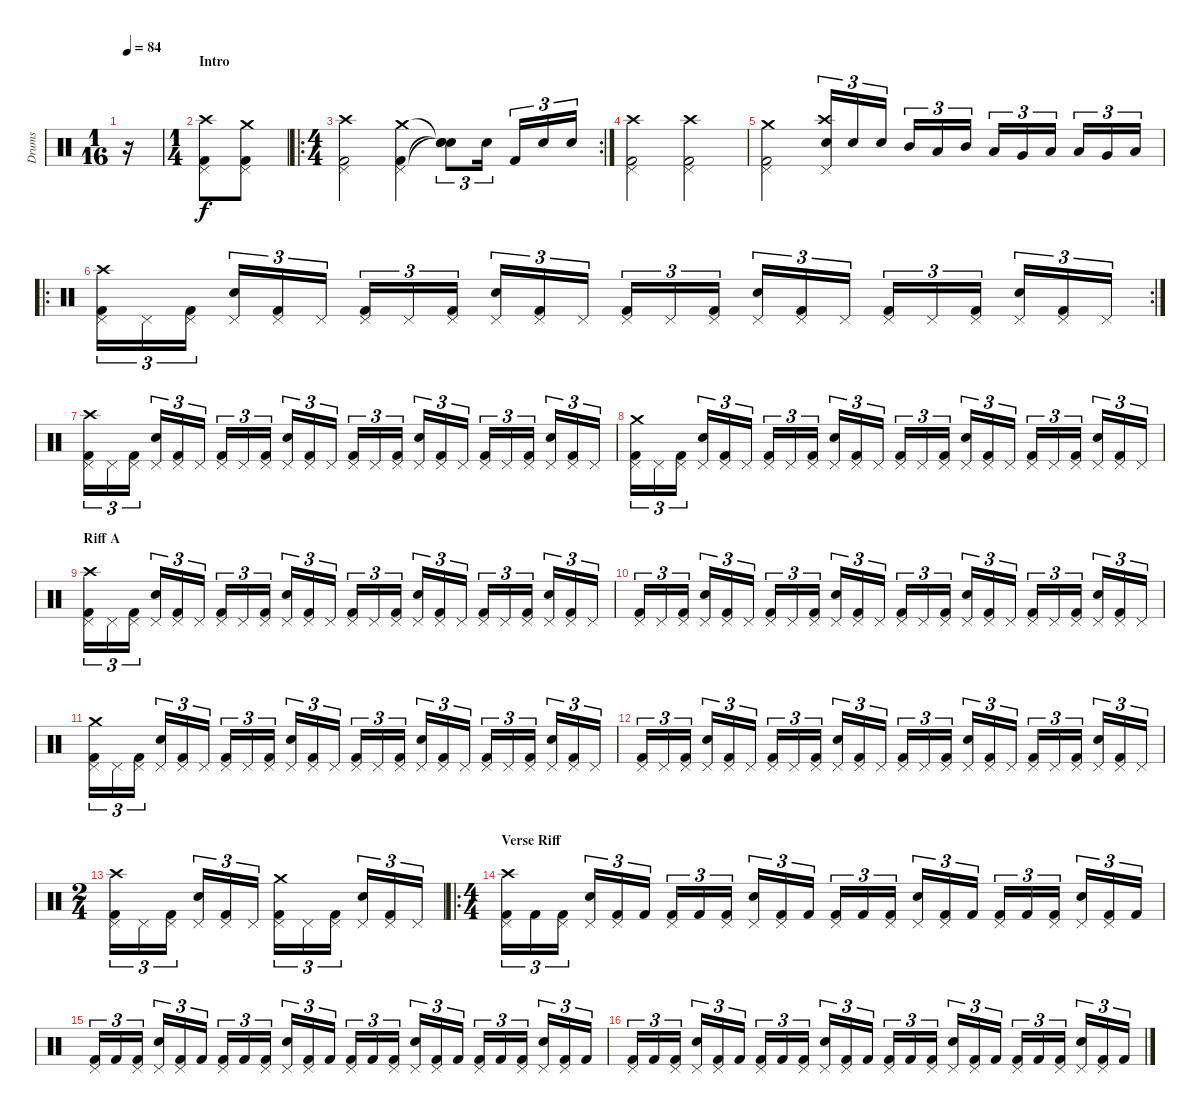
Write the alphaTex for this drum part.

\track ("Drums" "Drums") {instrument percussion}
\staff {score}
\articulation defaults
\ts (1 16)
\tempo 84
\clef neutral
\ks c
r.16{dy f} |
\ts (1 4)
\section ("" "Intro")
("Kick (hit) 2" "Pedal Hi-Hat (hit)" "Crash high (hit)").8 ("Kick (hit) 2" "Pedal Hi-Hat (hit)" "Crash medium (hit)").8 |
\ro
\rc 2
\ts (4 4)
("Kick (hit) 2" "Pedal Hi-Hat (hit)" "Crash high (hit)").2 ("Kick (hit) 2" "Pedal Hi-Hat (hit)" "Crash medium (hit)").4 ("Snare (hit) 2"{t} "Snare (hit)"{t} "Snare (hit)"{t}).8{tu (3 2)} "Snare (hit) 2".16{tu (3 2)} "Kick (hit) 2".16{tu (3 2)} "Snare (hit) 2".16{tu (3 2)} "Snare (hit) 2".16{tu (3 2)} |
("Kick (hit) 2" "Pedal Hi-Hat (hit)" "Crash high (hit)").2 ("Kick (hit) 2" "Pedal Hi-Hat (hit)" "Crash high (hit)").2 |
("Kick (hit) 2" "Pedal Hi-Hat (hit)" "Crash medium (hit)").2 ("Snare (hit) 2" "Pedal Hi-Hat (hit)" "Crash high (hit)").16{tu (3 2)} "Snare (hit) 2".16{tu (3 2)} "Snare (hit) 2".16{tu (3 2)} "Mid Tom (hit)".16{tu (3 2)} "Low Tom (hit)".16{tu (3 2)} "Mid Tom (hit)".16{tu (3 2)} "Low Tom (hit)".16{tu (3 2)} "Very Low Tom (hit)".16{tu (3 2)} "Low Floor Tom (hit)".16{tu (3 2)} "Low Tom (hit)".16{tu (3 2)} "Very Low Tom (hit)".16{tu (3 2)} "Low Floor Tom (hit)".16{tu (3 2)} |
\ro
\rc 2
("Kick (hit) 2" "Pedal Hi-Hat (hit)" "Crash high (hit)").16{tu (3 2)} "Pedal Hi-Hat (hit)".16{tu (3 2)} ("Kick (hit) 2" "Pedal Hi-Hat (hit)").16{tu (3 2)} ("Snare (hit) 2" "Pedal Hi-Hat (hit)").16{tu (3 2)} ("Kick (hit) 2" "Pedal Hi-Hat (hit)").16{tu (3 2)} "Pedal Hi-Hat (hit)".16{tu (3 2)} ("Kick (hit) 2" "Pedal Hi-Hat (hit)").16{tu (3 2)} "Pedal Hi-Hat (hit)".16{tu (3 2)} ("Kick (hit) 2" "Pedal Hi-Hat (hit)").16{tu (3 2)} ("Snare (hit) 2" "Pedal Hi-Hat (hit)").16{tu (3 2)} ("Kick (hit) 2" "Pedal Hi-Hat (hit)").16{tu (3 2)} "Pedal Hi-Hat (hit)".16{tu (3 2)} ("Kick (hit) 2" "Pedal Hi-Hat (hit)").16{tu (3 2)} "Pedal Hi-Hat (hit)".16{tu (3 2)} ("Kick (hit) 2" "Pedal Hi-Hat (hit)").16{tu (3 2)} ("Snare (hit) 2" "Pedal Hi-Hat (hit)").16{tu (3 2)} ("Kick (hit) 2" "Pedal Hi-Hat (hit)").16{tu (3 2)} "Pedal Hi-Hat (hit)".16{tu (3 2)} ("Kick (hit) 2" "Pedal Hi-Hat (hit)").16{tu (3 2)} "Pedal Hi-Hat (hit)".16{tu (3 2)} ("Kick (hit) 2" "Pedal Hi-Hat (hit)").16{tu (3 2)} ("Snare (hit) 2" "Pedal Hi-Hat (hit)").16{tu (3 2)} ("Kick (hit) 2" "Pedal Hi-Hat (hit)").16{tu (3 2)} "Pedal Hi-Hat (hit)".16{tu (3 2)} |
("Kick (hit) 2" "Pedal Hi-Hat (hit)" "Crash high (hit)").16{tu (3 2)} "Pedal Hi-Hat (hit)".16{tu (3 2)} ("Kick (hit) 2" "Pedal Hi-Hat (hit)").16{tu (3 2)} ("Snare (hit) 2" "Pedal Hi-Hat (hit)").16{tu (3 2)} ("Kick (hit) 2" "Pedal Hi-Hat (hit)").16{tu (3 2)} "Pedal Hi-Hat (hit)".16{tu (3 2)} ("Kick (hit) 2" "Pedal Hi-Hat (hit)").16{tu (3 2)} "Pedal Hi-Hat (hit)".16{tu (3 2)} ("Kick (hit) 2" "Pedal Hi-Hat (hit)").16{tu (3 2)} ("Snare (hit) 2" "Pedal Hi-Hat (hit)").16{tu (3 2)} ("Kick (hit) 2" "Pedal Hi-Hat (hit)").16{tu (3 2)} "Pedal Hi-Hat (hit)".16{tu (3 2)} ("Kick (hit) 2" "Pedal Hi-Hat (hit)").16{tu (3 2)} "Pedal Hi-Hat (hit)".16{tu (3 2)} ("Kick (hit) 2" "Pedal Hi-Hat (hit)").16{tu (3 2)} ("Snare (hit) 2" "Pedal Hi-Hat (hit)").16{tu (3 2)} ("Kick (hit) 2" "Pedal Hi-Hat (hit)").16{tu (3 2)} "Pedal Hi-Hat (hit)".16{tu (3 2)} ("Kick (hit) 2" "Pedal Hi-Hat (hit)").16{tu (3 2)} "Pedal Hi-Hat (hit)".16{tu (3 2)} ("Kick (hit) 2" "Pedal Hi-Hat (hit)").16{tu (3 2)} ("Snare (hit) 2" "Pedal Hi-Hat (hit)").16{tu (3 2)} ("Kick (hit) 2" "Pedal Hi-Hat (hit)").16{tu (3 2)} "Pedal Hi-Hat (hit)".16{tu (3 2)} |
("Kick (hit) 2" "Pedal Hi-Hat (hit)" "Crash medium (hit)").16{tu (3 2)} "Pedal Hi-Hat (hit)".16{tu (3 2)} ("Kick (hit) 2" "Pedal Hi-Hat (hit)").16{tu (3 2)} ("Snare (hit) 2" "Pedal Hi-Hat (hit)").16{tu (3 2)} ("Kick (hit) 2" "Pedal Hi-Hat (hit)").16{tu (3 2)} "Pedal Hi-Hat (hit)".16{tu (3 2)} ("Kick (hit) 2" "Pedal Hi-Hat (hit)").16{tu (3 2)} "Pedal Hi-Hat (hit)".16{tu (3 2)} ("Kick (hit) 2" "Pedal Hi-Hat (hit)").16{tu (3 2)} ("Snare (hit) 2" "Pedal Hi-Hat (hit)").16{tu (3 2)} ("Kick (hit) 2" "Pedal Hi-Hat (hit)").16{tu (3 2)} "Pedal Hi-Hat (hit)".16{tu (3 2)} ("Kick (hit) 2" "Pedal Hi-Hat (hit)").16{tu (3 2)} "Pedal Hi-Hat (hit)".16{tu (3 2)} ("Kick (hit) 2" "Pedal Hi-Hat (hit)").16{tu (3 2)} ("Snare (hit) 2" "Pedal Hi-Hat (hit)").16{tu (3 2)} ("Kick (hit) 2" "Pedal Hi-Hat (hit)").16{tu (3 2)} "Pedal Hi-Hat (hit)".16{tu (3 2)} ("Kick (hit) 2" "Pedal Hi-Hat (hit)").16{tu (3 2)} "Pedal Hi-Hat (hit)".16{tu (3 2)} ("Kick (hit) 2" "Pedal Hi-Hat (hit)").16{tu (3 2)} ("Snare (hit) 2" "Pedal Hi-Hat (hit)").16{tu (3 2)} ("Kick (hit) 2" "Pedal Hi-Hat (hit)").16{tu (3 2)} "Pedal Hi-Hat (hit)".16{tu (3 2)} |
\section ("" "Riff A")
("Kick (hit) 2" "Pedal Hi-Hat (hit)" "Crash high (hit)").16{tu (3 2)} "Pedal Hi-Hat (hit)".16{tu (3 2)} ("Kick (hit) 2" "Pedal Hi-Hat (hit)").16{tu (3 2)} ("Snare (hit) 2" "Pedal Hi-Hat (hit)").16{tu (3 2)} ("Kick (hit) 2" "Pedal Hi-Hat (hit)").16{tu (3 2)} "Pedal Hi-Hat (hit)".16{tu (3 2)} ("Kick (hit) 2" "Pedal Hi-Hat (hit)").16{tu (3 2)} "Pedal Hi-Hat (hit)".16{tu (3 2)} ("Kick (hit) 2" "Pedal Hi-Hat (hit)").16{tu (3 2)} ("Snare (hit) 2" "Pedal Hi-Hat (hit)").16{tu (3 2)} ("Kick (hit) 2" "Pedal Hi-Hat (hit)").16{tu (3 2)} "Pedal Hi-Hat (hit)".16{tu (3 2)} ("Kick (hit) 2" "Pedal Hi-Hat (hit)").16{tu (3 2)} "Pedal Hi-Hat (hit)".16{tu (3 2)} ("Kick (hit) 2" "Pedal Hi-Hat (hit)").16{tu (3 2)} ("Snare (hit) 2" "Pedal Hi-Hat (hit)").16{tu (3 2)} ("Kick (hit) 2" "Pedal Hi-Hat (hit)").16{tu (3 2)} "Pedal Hi-Hat (hit)".16{tu (3 2)} ("Kick (hit) 2" "Pedal Hi-Hat (hit)").16{tu (3 2)} "Pedal Hi-Hat (hit)".16{tu (3 2)} ("Kick (hit) 2" "Pedal Hi-Hat (hit)").16{tu (3 2)} ("Snare (hit) 2" "Pedal Hi-Hat (hit)").16{tu (3 2)} ("Kick (hit) 2" "Pedal Hi-Hat (hit)").16{tu (3 2)} "Pedal Hi-Hat (hit)".16{tu (3 2)} |
("Kick (hit) 2" "Pedal Hi-Hat (hit)").16{tu (3 2)} "Pedal Hi-Hat (hit)".16{tu (3 2)} ("Kick (hit) 2" "Pedal Hi-Hat (hit)").16{tu (3 2)} ("Snare (hit) 2" "Pedal Hi-Hat (hit)").16{tu (3 2)} ("Kick (hit) 2" "Pedal Hi-Hat (hit)").16{tu (3 2)} "Pedal Hi-Hat (hit)".16{tu (3 2)} ("Kick (hit) 2" "Pedal Hi-Hat (hit)").16{tu (3 2)} "Pedal Hi-Hat (hit)".16{tu (3 2)} ("Kick (hit) 2" "Pedal Hi-Hat (hit)").16{tu (3 2)} ("Snare (hit) 2" "Pedal Hi-Hat (hit)").16{tu (3 2)} ("Kick (hit) 2" "Pedal Hi-Hat (hit)").16{tu (3 2)} "Pedal Hi-Hat (hit)".16{tu (3 2)} ("Kick (hit) 2" "Pedal Hi-Hat (hit)").16{tu (3 2)} "Pedal Hi-Hat (hit)".16{tu (3 2)} ("Kick (hit) 2" "Pedal Hi-Hat (hit)").16{tu (3 2)} ("Snare (hit) 2" "Pedal Hi-Hat (hit)").16{tu (3 2)} ("Kick (hit) 2" "Pedal Hi-Hat (hit)").16{tu (3 2)} "Pedal Hi-Hat (hit)".16{tu (3 2)} ("Kick (hit) 2" "Pedal Hi-Hat (hit)").16{tu (3 2)} "Pedal Hi-Hat (hit)".16{tu (3 2)} ("Kick (hit) 2" "Pedal Hi-Hat (hit)").16{tu (3 2)} ("Snare (hit) 2" "Pedal Hi-Hat (hit)").16{tu (3 2)} ("Kick (hit) 2" "Pedal Hi-Hat (hit)").16{tu (3 2)} "Pedal Hi-Hat (hit)".16{tu (3 2)} |
("Kick (hit) 2" "Pedal Hi-Hat (hit)" "Crash medium (hit)").16{tu (3 2)} "Pedal Hi-Hat (hit)".16{tu (3 2)} ("Kick (hit) 2" "Pedal Hi-Hat (hit)").16{tu (3 2)} ("Snare (hit) 2" "Pedal Hi-Hat (hit)").16{tu (3 2)} ("Kick (hit) 2" "Pedal Hi-Hat (hit)").16{tu (3 2)} "Pedal Hi-Hat (hit)".16{tu (3 2)} ("Kick (hit) 2" "Pedal Hi-Hat (hit)").16{tu (3 2)} "Pedal Hi-Hat (hit)".16{tu (3 2)} ("Kick (hit) 2" "Pedal Hi-Hat (hit)").16{tu (3 2)} ("Snare (hit) 2" "Pedal Hi-Hat (hit)").16{tu (3 2)} ("Kick (hit) 2" "Pedal Hi-Hat (hit)").16{tu (3 2)} "Pedal Hi-Hat (hit)".16{tu (3 2)} ("Kick (hit) 2" "Pedal Hi-Hat (hit)").16{tu (3 2)} "Pedal Hi-Hat (hit)".16{tu (3 2)} ("Kick (hit) 2" "Pedal Hi-Hat (hit)").16{tu (3 2)} ("Snare (hit) 2" "Pedal Hi-Hat (hit)").16{tu (3 2)} ("Kick (hit) 2" "Pedal Hi-Hat (hit)").16{tu (3 2)} "Pedal Hi-Hat (hit)".16{tu (3 2)} ("Kick (hit) 2" "Pedal Hi-Hat (hit)").16{tu (3 2)} "Pedal Hi-Hat (hit)".16{tu (3 2)} ("Kick (hit) 2" "Pedal Hi-Hat (hit)").16{tu (3 2)} ("Snare (hit) 2" "Pedal Hi-Hat (hit)").16{tu (3 2)} ("Kick (hit) 2" "Pedal Hi-Hat (hit)").16{tu (3 2)} "Pedal Hi-Hat (hit)".16{tu (3 2)} |
("Kick (hit) 2" "Pedal Hi-Hat (hit)").16{tu (3 2)} "Pedal Hi-Hat (hit)".16{tu (3 2)} ("Kick (hit) 2" "Pedal Hi-Hat (hit)").16{tu (3 2)} ("Snare (hit) 2" "Pedal Hi-Hat (hit)").16{tu (3 2)} ("Kick (hit) 2" "Pedal Hi-Hat (hit)").16{tu (3 2)} "Pedal Hi-Hat (hit)".16{tu (3 2)} ("Kick (hit) 2" "Pedal Hi-Hat (hit)").16{tu (3 2)} "Pedal Hi-Hat (hit)".16{tu (3 2)} ("Kick (hit) 2" "Pedal Hi-Hat (hit)").16{tu (3 2)} ("Snare (hit) 2" "Pedal Hi-Hat (hit)").16{tu (3 2)} ("Kick (hit) 2" "Pedal Hi-Hat (hit)").16{tu (3 2)} "Pedal Hi-Hat (hit)".16{tu (3 2)} ("Kick (hit) 2" "Pedal Hi-Hat (hit)").16{tu (3 2)} "Pedal Hi-Hat (hit)".16{tu (3 2)} ("Kick (hit) 2" "Pedal Hi-Hat (hit)").16{tu (3 2)} ("Snare (hit) 2" "Pedal Hi-Hat (hit)").16{tu (3 2)} ("Kick (hit) 2" "Pedal Hi-Hat (hit)").16{tu (3 2)} "Pedal Hi-Hat (hit)".16{tu (3 2)} ("Kick (hit) 2" "Pedal Hi-Hat (hit)").16{tu (3 2)} "Pedal Hi-Hat (hit)".16{tu (3 2)} ("Kick (hit) 2" "Pedal Hi-Hat (hit)").16{tu (3 2)} ("Snare (hit) 2" "Pedal Hi-Hat (hit)").16{tu (3 2)} ("Kick (hit) 2" "Pedal Hi-Hat (hit)").16{tu (3 2)} "Pedal Hi-Hat (hit)".16{tu (3 2)} |
\ts (2 4)
("Kick (hit) 2" "Pedal Hi-Hat (hit)" "Crash high (hit)").16{tu (3 2)} "Pedal Hi-Hat (hit)".16{tu (3 2)} ("Kick (hit) 2" "Pedal Hi-Hat (hit)").16{tu (3 2)} ("Snare (hit) 2" "Pedal Hi-Hat (hit)").16{tu (3 2)} ("Kick (hit) 2" "Pedal Hi-Hat (hit)").16{tu (3 2)} "Pedal Hi-Hat (hit)".16{tu (3 2)} ("Kick (hit) 2" "Pedal Hi-Hat (hit)" "Crash medium (hit)").16{tu (3 2)} "Pedal Hi-Hat (hit)".16{tu (3 2)} ("Kick (hit) 2" "Pedal Hi-Hat (hit)").16{tu (3 2)} ("Snare (hit) 2" "Pedal Hi-Hat (hit)").16{tu (3 2)} ("Kick (hit) 2" "Pedal Hi-Hat (hit)").16{tu (3 2)} "Pedal Hi-Hat (hit)".16{tu (3 2)} |
\ro
\ts (4 4)
\section ("" "Verse Riff")
("Kick (hit) 2" "Pedal Hi-Hat (hit)" "Crash high (hit)").16{tu (3 2)} "Kick (hit) 2".16{tu (3 2)} ("Kick (hit) 2" "Pedal Hi-Hat (hit)").16{tu (3 2)} ("Snare (hit) 2" "Pedal Hi-Hat (hit)").16{tu (3 2)} ("Kick (hit) 2" "Pedal Hi-Hat (hit)").16{tu (3 2)} "Kick (hit) 2".16{tu (3 2)} ("Kick (hit) 2" "Pedal Hi-Hat (hit)").16{tu (3 2)} "Kick (hit) 2".16{tu (3 2)} ("Kick (hit) 2" "Pedal Hi-Hat (hit)").16{tu (3 2)} ("Snare (hit) 2" "Pedal Hi-Hat (hit)").16{tu (3 2)} ("Kick (hit) 2" "Pedal Hi-Hat (hit)").16{tu (3 2)} "Kick (hit) 2".16{tu (3 2)} ("Kick (hit) 2" "Pedal Hi-Hat (hit)").16{tu (3 2)} "Kick (hit) 2".16{tu (3 2)} ("Kick (hit) 2" "Pedal Hi-Hat (hit)").16{tu (3 2)} ("Snare (hit) 2" "Pedal Hi-Hat (hit)").16{tu (3 2)} ("Kick (hit) 2" "Pedal Hi-Hat (hit)").16{tu (3 2)} "Kick (hit) 2".16{tu (3 2)} ("Kick (hit) 2" "Pedal Hi-Hat (hit)").16{tu (3 2)} "Kick (hit) 2".16{tu (3 2)} ("Kick (hit) 2" "Pedal Hi-Hat (hit)").16{tu (3 2)} ("Snare (hit) 2" "Pedal Hi-Hat (hit)").16{tu (3 2)} ("Kick (hit) 2" "Pedal Hi-Hat (hit)").16{tu (3 2)} "Kick (hit) 2".16{tu (3 2)} |
("Kick (hit) 2" "Pedal Hi-Hat (hit)").16{tu (3 2)} "Kick (hit) 2".16{tu (3 2)} ("Kick (hit) 2" "Pedal Hi-Hat (hit)").16{tu (3 2)} ("Snare (hit) 2" "Pedal Hi-Hat (hit)").16{tu (3 2)} ("Kick (hit) 2" "Pedal Hi-Hat (hit)").16{tu (3 2)} "Kick (hit) 2".16{tu (3 2)} ("Kick (hit) 2" "Pedal Hi-Hat (hit)").16{tu (3 2)} "Kick (hit) 2".16{tu (3 2)} ("Kick (hit) 2" "Pedal Hi-Hat (hit)").16{tu (3 2)} ("Snare (hit) 2" "Pedal Hi-Hat (hit)").16{tu (3 2)} ("Kick (hit) 2" "Pedal Hi-Hat (hit)").16{tu (3 2)} "Kick (hit) 2".16{tu (3 2)} ("Kick (hit) 2" "Pedal Hi-Hat (hit)").16{tu (3 2)} "Kick (hit) 2".16{tu (3 2)} ("Kick (hit) 2" "Pedal Hi-Hat (hit)").16{tu (3 2)} ("Snare (hit) 2" "Pedal Hi-Hat (hit)").16{tu (3 2)} ("Kick (hit) 2" "Pedal Hi-Hat (hit)").16{tu (3 2)} "Kick (hit) 2".16{tu (3 2)} ("Kick (hit) 2" "Pedal Hi-Hat (hit)").16{tu (3 2)} "Kick (hit) 2".16{tu (3 2)} ("Kick (hit) 2" "Pedal Hi-Hat (hit)").16{tu (3 2)} ("Snare (hit) 2" "Pedal Hi-Hat (hit)").16{tu (3 2)} ("Kick (hit) 2" "Pedal Hi-Hat (hit)").16{tu (3 2)} "Kick (hit) 2".16{tu (3 2)} |
("Kick (hit) 2" "Pedal Hi-Hat (hit)").16{tu (3 2)} "Kick (hit) 2".16{tu (3 2)} ("Kick (hit) 2" "Pedal Hi-Hat (hit)").16{tu (3 2)} ("Snare (hit) 2" "Pedal Hi-Hat (hit)").16{tu (3 2)} ("Kick (hit) 2" "Pedal Hi-Hat (hit)").16{tu (3 2)} "Kick (hit) 2".16{tu (3 2)} ("Kick (hit) 2" "Pedal Hi-Hat (hit)").16{tu (3 2)} "Kick (hit) 2".16{tu (3 2)} ("Kick (hit) 2" "Pedal Hi-Hat (hit)").16{tu (3 2)} ("Snare (hit) 2" "Pedal Hi-Hat (hit)").16{tu (3 2)} ("Kick (hit) 2" "Pedal Hi-Hat (hit)").16{tu (3 2)} "Kick (hit) 2".16{tu (3 2)} ("Kick (hit) 2" "Pedal Hi-Hat (hit)").16{tu (3 2)} "Kick (hit) 2".16{tu (3 2)} ("Kick (hit) 2" "Pedal Hi-Hat (hit)").16{tu (3 2)} ("Snare (hit) 2" "Pedal Hi-Hat (hit)").16{tu (3 2)} ("Kick (hit) 2" "Pedal Hi-Hat (hit)").16{tu (3 2)} "Kick (hit) 2".16{tu (3 2)} ("Kick (hit) 2" "Pedal Hi-Hat (hit)").16{tu (3 2)} "Kick (hit) 2".16{tu (3 2)} ("Kick (hit) 2" "Pedal Hi-Hat (hit)").16{tu (3 2)} ("Snare (hit) 2" "Pedal Hi-Hat (hit)").16{tu (3 2)} ("Kick (hit) 2" "Pedal Hi-Hat (hit)").16{tu (3 2)} "Kick (hit) 2".16{tu (3 2)}
